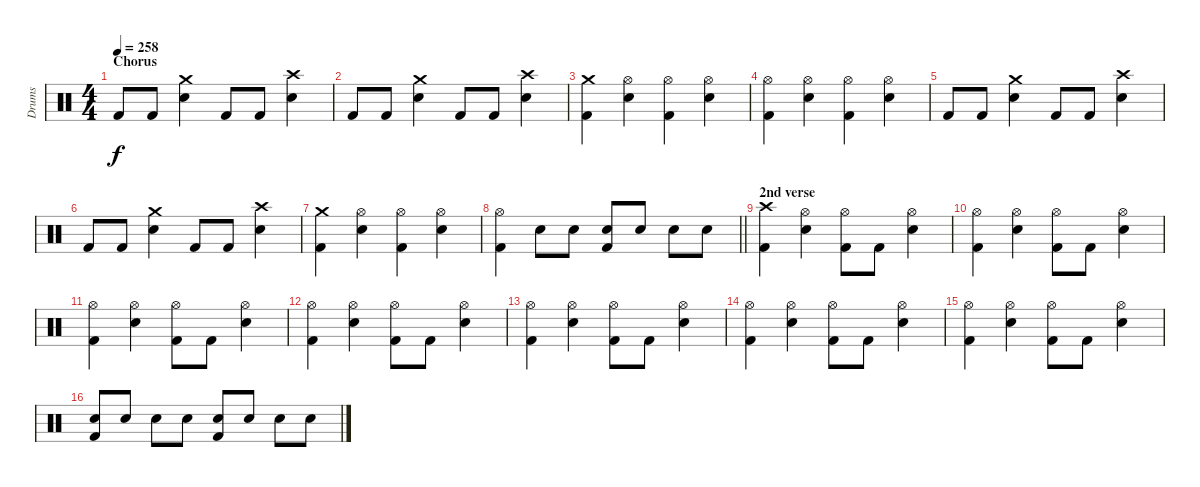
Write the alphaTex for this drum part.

\track ("Drums" "Drums") {instrument percussion}
\staff {score}
\articulation defaults
\ts (4 4)
\section ("" "Chorus")
\tempo 258
\clef neutral
\ks c "Kick (hit) 2".8{dy f} "Kick (hit) 2".8
("Crash medium (hit)" "Electric Snare (hit)").4 "Kick (hit) 2".8 "Kick (hit) 2".8 ("Crash high (hit)" "Electric Snare (hit)").4 |
"Kick (hit) 2".8 "Kick (hit) 2".8 ("Crash medium (hit)" "Electric Snare (hit)").4 "Kick (hit) 2".8 "Kick (hit) 2".8 ("Crash high (hit)" "Electric Snare (hit)").4 |
("Crash medium (hit)" "Kick (hit) 2").4 ("Hi-Hat (open)" "Electric Snare (hit)").4 ("Hi-Hat (open)" "Kick (hit) 2").4 ("Hi-Hat (open)" "Electric Snare (hit)").4 |
("Hi-Hat (open)" "Kick (hit) 2").4 ("Hi-Hat (open)" "Electric Snare (hit)").4 ("Hi-Hat (open)" "Kick (hit) 2").4 ("Hi-Hat (open)" "Electric Snare (hit)").4 |
"Kick (hit) 2".8 "Kick (hit) 2".8 ("Crash medium (hit)" "Electric Snare (hit)").4 "Kick (hit) 2".8 "Kick (hit) 2".8 ("Crash high (hit)" "Electric Snare (hit)").4 |
"Kick (hit) 2".8 "Kick (hit) 2".8 ("Crash medium (hit)" "Electric Snare (hit)").4 "Kick (hit) 2".8 "Kick (hit) 2".8 ("Crash high (hit)" "Electric Snare (hit)").4 |
("Crash medium (hit)" "Kick (hit) 2").4 ("Hi-Hat (open)" "Electric Snare (hit)").4 ("Hi-Hat (open)" "Kick (hit) 2").4 ("Hi-Hat (open)" "Electric Snare (hit)").4 |
\barLineRight lightlight
("Hi-Hat (open)" "Kick (hit) 2").4 "Electric Snare (hit)".8 "Electric Snare (hit)".8 ("Electric Snare (hit)" "Kick (hit) 2").8 "Electric Snare (hit)".8 "Electric Snare (hit)".8 "Electric Snare (hit)".8 |
\section ("" "2nd verse")
("Crash high (hit)" "Kick (hit) 2").4 ("Hi-Hat (open)" "Electric Snare (hit)").4 ("Hi-Hat (open)" "Kick (hit) 2").8 "Kick (hit) 2".8 ("Hi-Hat (open)" "Electric Snare (hit)").4 |
("Hi-Hat (open)" "Kick (hit) 2").4 ("Hi-Hat (open)" "Electric Snare (hit)").4 ("Hi-Hat (open)" "Kick (hit) 2").8 "Kick (hit) 2".8 ("Hi-Hat (open)" "Electric Snare (hit)").4 |
("Hi-Hat (open)" "Kick (hit) 2").4 ("Hi-Hat (open)" "Electric Snare (hit)").4 ("Hi-Hat (open)" "Kick (hit) 2").8 "Kick (hit) 2".8 ("Hi-Hat (open)" "Electric Snare (hit)").4 |
("Hi-Hat (open)" "Kick (hit) 2").4 ("Hi-Hat (open)" "Electric Snare (hit)").4 ("Hi-Hat (open)" "Kick (hit) 2").8 "Kick (hit) 2".8 ("Hi-Hat (open)" "Electric Snare (hit)").4 |
("Hi-Hat (open)" "Kick (hit) 2").4 ("Hi-Hat (open)" "Electric Snare (hit)").4 ("Hi-Hat (open)" "Kick (hit) 2").8 "Kick (hit) 2".8 ("Hi-Hat (open)" "Electric Snare (hit)").4 |
("Hi-Hat (open)" "Kick (hit) 2").4 ("Hi-Hat (open)" "Electric Snare (hit)").4 ("Hi-Hat (open)" "Kick (hit) 2").8 "Kick (hit) 2".8 ("Hi-Hat (open)" "Electric Snare (hit)").4 |
("Hi-Hat (open)" "Kick (hit) 2").4 ("Hi-Hat (open)" "Electric Snare (hit)").4 ("Hi-Hat (open)" "Kick (hit) 2").8 "Kick (hit) 2".8 ("Hi-Hat (open)" "Electric Snare (hit)").4 |
("Electric Snare (hit)" "Kick (hit) 2").8 "Electric Snare (hit)".8 "Electric Snare (hit)".8 "Electric Snare (hit)".8 ("Electric Snare (hit)" "Kick (hit) 2").8 "Electric Snare (hit)".8 "Electric Snare (hit)".8 "Electric Snare (hit)".8
